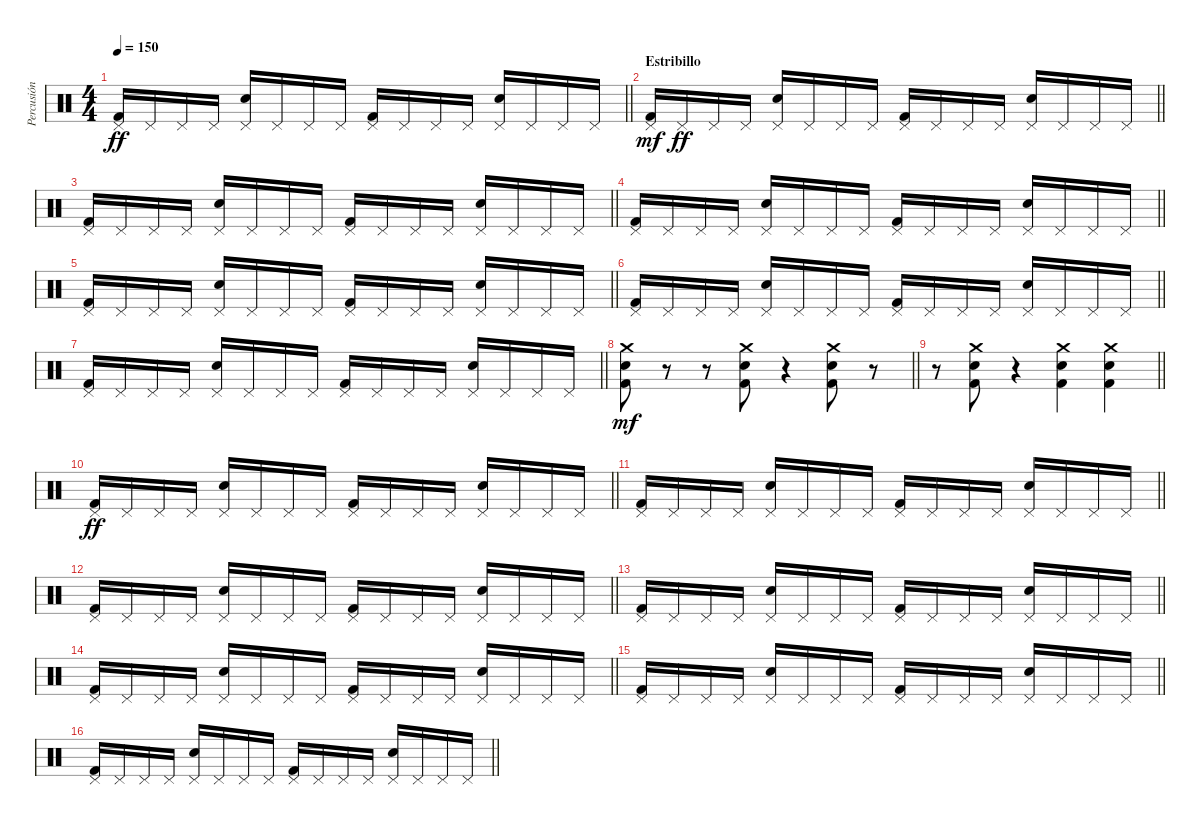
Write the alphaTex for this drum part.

\track ("Percusión" "Percusión") {instrument percussion}
\staff {score}
\articulation defaults
\ts (4 4)
\tempo 150
\clef neutral
\barLineRight lightlight
\ks c
("Pedal Hi-Hat (hit)" "Kick (hit) 2").16{dy ff} "Pedal Hi-Hat (hit)".16 "Pedal Hi-Hat (hit)".16 "Pedal Hi-Hat (hit)".16 ("Pedal Hi-Hat (hit)" "Electric Snare (hit)").16 "Pedal Hi-Hat (hit)".16 "Pedal Hi-Hat (hit)".16 "Pedal Hi-Hat (hit)".16 ("Pedal Hi-Hat (hit)" "Kick (hit) 2").16 "Pedal Hi-Hat (hit)".16 "Pedal Hi-Hat (hit)".16 "Pedal Hi-Hat (hit)".16 ("Pedal Hi-Hat (hit)" "Electric Snare (hit)").16 "Pedal Hi-Hat (hit)".16 "Pedal Hi-Hat (hit)".16 "Pedal Hi-Hat (hit)".16 |
\section ("" "Estribillo")
\barLineRight lightlight
("Pedal Hi-Hat (hit)" "Kick (hit) 2").16{dy mf} "Pedal Hi-Hat (hit)".16{dy ff} "Pedal Hi-Hat (hit)".16 "Pedal Hi-Hat (hit)".16 ("Pedal Hi-Hat (hit)" "Electric Snare (hit)").16 "Pedal Hi-Hat (hit)".16 "Pedal Hi-Hat (hit)".16 "Pedal Hi-Hat (hit)".16 ("Pedal Hi-Hat (hit)" "Kick (hit) 2").16 "Pedal Hi-Hat (hit)".16 "Pedal Hi-Hat (hit)".16 "Pedal Hi-Hat (hit)".16 ("Pedal Hi-Hat (hit)" "Electric Snare (hit)").16 "Pedal Hi-Hat (hit)".16 "Pedal Hi-Hat (hit)".16 "Pedal Hi-Hat (hit)".16 |
\barLineRight lightlight
("Pedal Hi-Hat (hit)" "Kick (hit) 2").16 "Pedal Hi-Hat (hit)".16 "Pedal Hi-Hat (hit)".16 "Pedal Hi-Hat (hit)".16 ("Pedal Hi-Hat (hit)" "Electric Snare (hit)").16 "Pedal Hi-Hat (hit)".16 "Pedal Hi-Hat (hit)".16 "Pedal Hi-Hat (hit)".16 ("Pedal Hi-Hat (hit)" "Kick (hit) 2").16 "Pedal Hi-Hat (hit)".16 "Pedal Hi-Hat (hit)".16 "Pedal Hi-Hat (hit)".16 ("Pedal Hi-Hat (hit)" "Electric Snare (hit)").16 "Pedal Hi-Hat (hit)".16 "Pedal Hi-Hat (hit)".16 "Pedal Hi-Hat (hit)".16 |
\barLineRight lightlight
("Pedal Hi-Hat (hit)" "Kick (hit) 2").16 "Pedal Hi-Hat (hit)".16 "Pedal Hi-Hat (hit)".16 "Pedal Hi-Hat (hit)".16 ("Pedal Hi-Hat (hit)" "Electric Snare (hit)").16 "Pedal Hi-Hat (hit)".16 "Pedal Hi-Hat (hit)".16 "Pedal Hi-Hat (hit)".16 ("Pedal Hi-Hat (hit)" "Kick (hit) 2").16 "Pedal Hi-Hat (hit)".16 "Pedal Hi-Hat (hit)".16 "Pedal Hi-Hat (hit)".16 ("Pedal Hi-Hat (hit)" "Electric Snare (hit)").16 "Pedal Hi-Hat (hit)".16 "Pedal Hi-Hat (hit)".16 "Pedal Hi-Hat (hit)".16 |
\barLineRight lightlight
("Pedal Hi-Hat (hit)" "Kick (hit) 2").16 "Pedal Hi-Hat (hit)".16 "Pedal Hi-Hat (hit)".16 "Pedal Hi-Hat (hit)".16 ("Pedal Hi-Hat (hit)" "Electric Snare (hit)").16 "Pedal Hi-Hat (hit)".16 "Pedal Hi-Hat (hit)".16 "Pedal Hi-Hat (hit)".16 ("Pedal Hi-Hat (hit)" "Kick (hit) 2").16 "Pedal Hi-Hat (hit)".16 "Pedal Hi-Hat (hit)".16 "Pedal Hi-Hat (hit)".16 ("Pedal Hi-Hat (hit)" "Electric Snare (hit)").16 "Pedal Hi-Hat (hit)".16 "Pedal Hi-Hat (hit)".16 "Pedal Hi-Hat (hit)".16 |
\barLineRight lightlight
("Pedal Hi-Hat (hit)" "Kick (hit) 2").16 "Pedal Hi-Hat (hit)".16 "Pedal Hi-Hat (hit)".16 "Pedal Hi-Hat (hit)".16 ("Pedal Hi-Hat (hit)" "Electric Snare (hit)").16 "Pedal Hi-Hat (hit)".16 "Pedal Hi-Hat (hit)".16 "Pedal Hi-Hat (hit)".16 ("Pedal Hi-Hat (hit)" "Kick (hit) 2").16 "Pedal Hi-Hat (hit)".16 "Pedal Hi-Hat (hit)".16 "Pedal Hi-Hat (hit)".16 ("Pedal Hi-Hat (hit)" "Electric Snare (hit)").16 "Pedal Hi-Hat (hit)".16 "Pedal Hi-Hat (hit)".16 "Pedal Hi-Hat (hit)".16 |
\barLineRight lightlight
("Pedal Hi-Hat (hit)" "Kick (hit) 2").16 "Pedal Hi-Hat (hit)".16 "Pedal Hi-Hat (hit)".16 "Pedal Hi-Hat (hit)".16 ("Pedal Hi-Hat (hit)" "Electric Snare (hit)").16 "Pedal Hi-Hat (hit)".16 "Pedal Hi-Hat (hit)".16 "Pedal Hi-Hat (hit)".16 ("Pedal Hi-Hat (hit)" "Kick (hit) 2").16 "Pedal Hi-Hat (hit)".16 "Pedal Hi-Hat (hit)".16 "Pedal Hi-Hat (hit)".16 ("Pedal Hi-Hat (hit)" "Electric Snare (hit)").16 "Pedal Hi-Hat (hit)".16 "Pedal Hi-Hat (hit)".16 "Pedal Hi-Hat (hit)".16 |
\barLineRight lightlight
("Electric Snare (hit)" "Crash medium (hit)" "Kick (hit) 2").8{dy mf} r.8 r.8 ("Electric Snare (hit)" "Crash medium (hit)" "Kick (hit) 2").8 r.4 ("Electric Snare (hit)" "Crash medium (hit)" "Kick (hit) 2").8 r.8 |
\barLineRight lightlight
r.8 ("Electric Snare (hit)" "Crash medium (hit)" "Kick (hit) 2").8 r.4 ("Electric Snare (hit)" "Crash medium (hit)" "Kick (hit) 2").4 ("Electric Snare (hit)" "Crash medium (hit)" "Kick (hit) 2").4 |
\barLineRight lightlight
("Pedal Hi-Hat (hit)" "Kick (hit) 2").16{dy ff} "Pedal Hi-Hat (hit)".16 "Pedal Hi-Hat (hit)".16 "Pedal Hi-Hat (hit)".16 ("Pedal Hi-Hat (hit)" "Electric Snare (hit)").16 "Pedal Hi-Hat (hit)".16 "Pedal Hi-Hat (hit)".16 "Pedal Hi-Hat (hit)".16 ("Pedal Hi-Hat (hit)" "Kick (hit) 2").16 "Pedal Hi-Hat (hit)".16 "Pedal Hi-Hat (hit)".16 "Pedal Hi-Hat (hit)".16 ("Pedal Hi-Hat (hit)" "Electric Snare (hit)").16 "Pedal Hi-Hat (hit)".16 "Pedal Hi-Hat (hit)".16 "Pedal Hi-Hat (hit)".16 |
\barLineRight lightlight
("Pedal Hi-Hat (hit)" "Kick (hit) 2").16 "Pedal Hi-Hat (hit)".16 "Pedal Hi-Hat (hit)".16 "Pedal Hi-Hat (hit)".16 ("Pedal Hi-Hat (hit)" "Electric Snare (hit)").16 "Pedal Hi-Hat (hit)".16 "Pedal Hi-Hat (hit)".16 "Pedal Hi-Hat (hit)".16 ("Pedal Hi-Hat (hit)" "Kick (hit) 2").16 "Pedal Hi-Hat (hit)".16 "Pedal Hi-Hat (hit)".16 "Pedal Hi-Hat (hit)".16 ("Pedal Hi-Hat (hit)" "Electric Snare (hit)").16 "Pedal Hi-Hat (hit)".16 "Pedal Hi-Hat (hit)".16 "Pedal Hi-Hat (hit)".16 |
\barLineRight lightlight
("Pedal Hi-Hat (hit)" "Kick (hit) 2").16 "Pedal Hi-Hat (hit)".16 "Pedal Hi-Hat (hit)".16 "Pedal Hi-Hat (hit)".16 ("Pedal Hi-Hat (hit)" "Electric Snare (hit)").16 "Pedal Hi-Hat (hit)".16 "Pedal Hi-Hat (hit)".16 "Pedal Hi-Hat (hit)".16 ("Pedal Hi-Hat (hit)" "Kick (hit) 2").16 "Pedal Hi-Hat (hit)".16 "Pedal Hi-Hat (hit)".16 "Pedal Hi-Hat (hit)".16 ("Pedal Hi-Hat (hit)" "Electric Snare (hit)").16 "Pedal Hi-Hat (hit)".16 "Pedal Hi-Hat (hit)".16 "Pedal Hi-Hat (hit)".16 |
\barLineRight lightlight
("Pedal Hi-Hat (hit)" "Kick (hit) 2").16 "Pedal Hi-Hat (hit)".16 "Pedal Hi-Hat (hit)".16 "Pedal Hi-Hat (hit)".16 ("Pedal Hi-Hat (hit)" "Electric Snare (hit)").16 "Pedal Hi-Hat (hit)".16 "Pedal Hi-Hat (hit)".16 "Pedal Hi-Hat (hit)".16 ("Pedal Hi-Hat (hit)" "Kick (hit) 2").16 "Pedal Hi-Hat (hit)".16 "Pedal Hi-Hat (hit)".16 "Pedal Hi-Hat (hit)".16 ("Pedal Hi-Hat (hit)" "Electric Snare (hit)").16 "Pedal Hi-Hat (hit)".16 "Pedal Hi-Hat (hit)".16 "Pedal Hi-Hat (hit)".16 |
\barLineRight lightlight
("Pedal Hi-Hat (hit)" "Kick (hit) 2").16 "Pedal Hi-Hat (hit)".16 "Pedal Hi-Hat (hit)".16 "Pedal Hi-Hat (hit)".16 ("Pedal Hi-Hat (hit)" "Electric Snare (hit)").16 "Pedal Hi-Hat (hit)".16 "Pedal Hi-Hat (hit)".16 "Pedal Hi-Hat (hit)".16 ("Pedal Hi-Hat (hit)" "Kick (hit) 2").16 "Pedal Hi-Hat (hit)".16 "Pedal Hi-Hat (hit)".16 "Pedal Hi-Hat (hit)".16 ("Pedal Hi-Hat (hit)" "Electric Snare (hit)").16 "Pedal Hi-Hat (hit)".16 "Pedal Hi-Hat (hit)".16 "Pedal Hi-Hat (hit)".16 |
\barLineRight lightlight
("Pedal Hi-Hat (hit)" "Kick (hit) 2").16 "Pedal Hi-Hat (hit)".16 "Pedal Hi-Hat (hit)".16 "Pedal Hi-Hat (hit)".16 ("Pedal Hi-Hat (hit)" "Electric Snare (hit)").16 "Pedal Hi-Hat (hit)".16 "Pedal Hi-Hat (hit)".16 "Pedal Hi-Hat (hit)".16 ("Pedal Hi-Hat (hit)" "Kick (hit) 2").16 "Pedal Hi-Hat (hit)".16 "Pedal Hi-Hat (hit)".16 "Pedal Hi-Hat (hit)".16 ("Pedal Hi-Hat (hit)" "Electric Snare (hit)").16 "Pedal Hi-Hat (hit)".16 "Pedal Hi-Hat (hit)".16 "Pedal Hi-Hat (hit)".16 |
\barLineRight lightlight
("Pedal Hi-Hat (hit)" "Kick (hit) 2").16 "Pedal Hi-Hat (hit)".16 "Pedal Hi-Hat (hit)".16 "Pedal Hi-Hat (hit)".16 ("Pedal Hi-Hat (hit)" "Electric Snare (hit)").16 "Pedal Hi-Hat (hit)".16 "Pedal Hi-Hat (hit)".16 "Pedal Hi-Hat (hit)".16 ("Pedal Hi-Hat (hit)" "Kick (hit) 2").16 "Pedal Hi-Hat (hit)".16 "Pedal Hi-Hat (hit)".16 "Pedal Hi-Hat (hit)".16 ("Pedal Hi-Hat (hit)" "Electric Snare (hit)").16 "Pedal Hi-Hat (hit)".16 "Pedal Hi-Hat (hit)".16 "Pedal Hi-Hat (hit)".16
